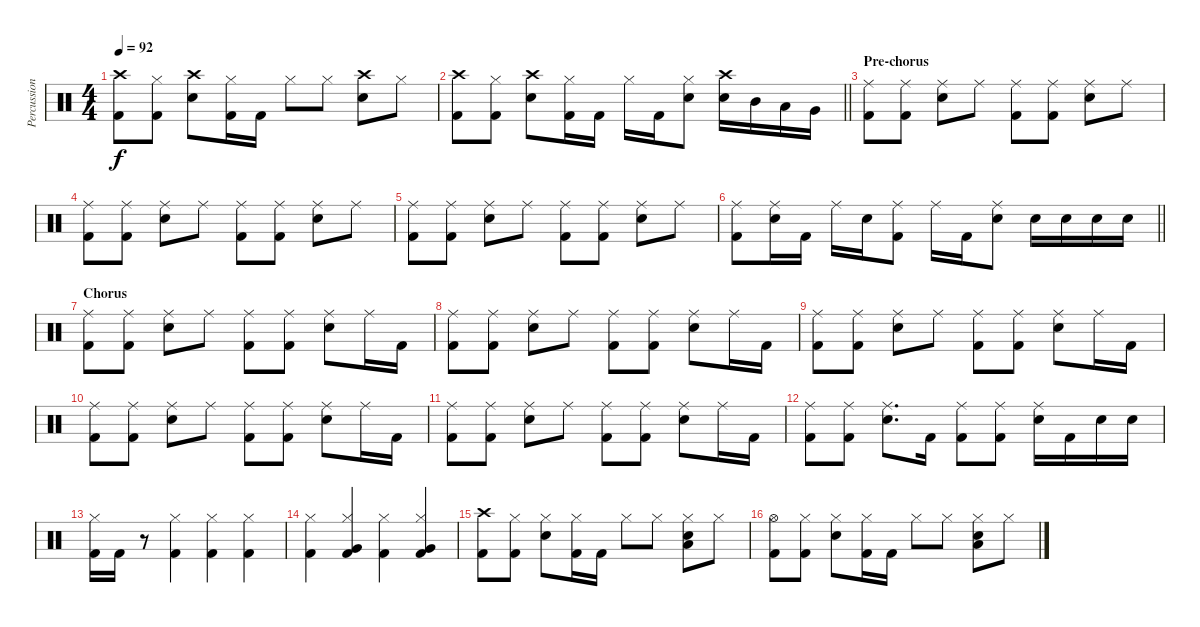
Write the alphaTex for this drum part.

\track ("Percussion" "Percussion") {instrument percussion}
\staff {score}
\articulation defaults
\ts (4 4)
\tempo 92
\clef neutral
\ks c
("Crash high (hit)" "Kick (hit) 2").8{dy f} ("Hi-Hat (closed)" "Kick (hit) 2").8 ("Crash high (hit)" "Electric Snare (hit)").8 ("Hi-Hat (closed)" "Kick (hit) 2").16 "Kick (hit) 2".16 "Hi-Hat (closed)".8 "Hi-Hat (closed)".8 ("Crash high (hit)" "Electric Snare (hit)").8 "Hi-Hat (closed)".8 |
\barLineRight lightlight
("Crash high (hit)" "Kick (hit) 2").8 ("Hi-Hat (closed)" "Kick (hit) 2").8 ("Crash high (hit)" "Electric Snare (hit)").8 ("Hi-Hat (closed)" "Kick (hit) 2").16 "Kick (hit) 2".16 "Hi-Hat (closed)".16 "Kick (hit) 2".16 ("Hi-Hat (closed)" "Electric Snare (hit)").8 ("Crash high (hit)" "Electric Snare (hit)").16 "Mid Tom (hit)".16 "Low Tom (hit)".16 "Very Low Tom (hit)".16 |
\section ("" "Pre-chorus")
("Ride (middle)" "Kick (hit) 2").8 ("Ride (middle)" "Kick (hit) 2").8 ("Ride (middle)" "Electric Snare (hit)").8 "Ride (middle)".8 ("Ride (middle)" "Kick (hit) 2").8 ("Ride (middle)" "Kick (hit) 2").8 ("Ride (middle)" "Electric Snare (hit)").8 "Ride (middle)".8 |
("Ride (middle)" "Kick (hit) 2").8 ("Ride (middle)" "Kick (hit) 2").8 ("Ride (middle)" "Electric Snare (hit)").8 "Ride (middle)".8 ("Ride (middle)" "Kick (hit) 2").8 ("Ride (middle)" "Kick (hit) 2").8 ("Ride (middle)" "Electric Snare (hit)").8 "Ride (middle)".8 |
("Ride (middle)" "Kick (hit) 2").8 ("Ride (middle)" "Kick (hit) 2").8 ("Ride (middle)" "Electric Snare (hit)").8 "Ride (middle)".8 ("Ride (middle)" "Kick (hit) 2").8 ("Ride (middle)" "Kick (hit) 2").8 ("Ride (middle)" "Electric Snare (hit)").8 "Ride (middle)".8 |
\barLineRight lightlight
("Ride (middle)" "Kick (hit) 2").8 ("Ride (middle)" "Electric Snare (hit)").16 "Kick (hit) 2".16 "Ride (middle)".16 "Electric Snare (hit)".16 ("Ride (middle)" "Kick (hit) 2").8 "Ride (middle)".16 "Kick (hit) 2".16 ("Ride (middle)" "Electric Snare (hit)").8 "Electric Snare (hit)".16 "Electric Snare (hit)".16 "Electric Snare (hit)".16 "Electric Snare (hit)".16 |
\section ("" "Chorus")
("Ride (middle)" "Kick (hit) 2").8 ("Ride (middle)" "Kick (hit) 2").8 ("Ride (middle)" "Electric Snare (hit)").8 "Ride (middle)".8 ("Ride (middle)" "Kick (hit) 2").8 ("Ride (middle)" "Kick (hit) 2").8 ("Ride (middle)" "Electric Snare (hit)").8 "Ride (middle)".16 "Kick (hit) 2".16 |
("Ride (middle)" "Kick (hit) 2").8 ("Ride (middle)" "Kick (hit) 2").8 ("Ride (middle)" "Electric Snare (hit)").8 "Ride (middle)".8 ("Ride (middle)" "Kick (hit) 2").8 ("Ride (middle)" "Kick (hit) 2").8 ("Ride (middle)" "Electric Snare (hit)").8 "Ride (middle)".16 "Kick (hit) 2".16 |
("Ride (middle)" "Kick (hit) 2").8 ("Ride (middle)" "Kick (hit) 2").8 ("Ride (middle)" "Electric Snare (hit)").8 "Ride (middle)".8 ("Ride (middle)" "Kick (hit) 2").8 ("Ride (middle)" "Kick (hit) 2").8 ("Ride (middle)" "Electric Snare (hit)").8 "Ride (middle)".16 "Kick (hit) 2".16 |
("Ride (middle)" "Kick (hit) 2").8 ("Ride (middle)" "Kick (hit) 2").8 ("Ride (middle)" "Electric Snare (hit)").8 "Ride (middle)".8 ("Ride (middle)" "Kick (hit) 2").8 ("Ride (middle)" "Kick (hit) 2").8 ("Ride (middle)" "Electric Snare (hit)").8 "Ride (middle)".16 "Kick (hit) 2".16 |
("Ride (middle)" "Kick (hit) 2").8 ("Ride (middle)" "Kick (hit) 2").8 ("Ride (middle)" "Electric Snare (hit)").8 "Ride (middle)".8 ("Ride (middle)" "Kick (hit) 2").8 ("Ride (middle)" "Kick (hit) 2").8 ("Ride (middle)" "Electric Snare (hit)").8 "Ride (middle)".16 "Kick (hit) 2".16 |
("Ride (middle)" "Kick (hit) 2").8 ("Ride (middle)" "Kick (hit) 2").8 ("Ride (middle)" "Electric Snare (hit)").8{d} "Kick (hit) 2".16 ("Ride (middle)" "Kick (hit) 2").8 ("Ride (middle)" "Kick (hit) 2").8 ("Ride (middle)" "Electric Snare (hit)").16 "Kick (hit) 2".16 "Electric Snare (hit)".16 "Electric Snare (hit)".16 |
("Hi-Hat (closed)" "Kick (hit) 2").16 "Kick (hit) 2".16 r.8 ("Hi-Hat (closed)" "Kick (hit) 2").4 ("Hi-Hat (closed)" "Kick (hit) 2").4 ("Hi-Hat (closed)" "Kick (hit) 2").4 |
("Hi-Hat (closed)" "Kick (hit) 2").4 ("Hi-Hat (closed)" "Very Low Tom (hit)" "Kick (hit) 2").4 ("Hi-Hat (closed)" "Kick (hit) 2").4 ("Hi-Hat (closed)" "Very Low Tom (hit)" "Kick (hit) 2").4 |
("Crash high (hit)" "Kick (hit) 2").8 ("Hi-Hat (closed)" "Kick (hit) 2").8 ("Hi-Hat (closed)" "Electric Snare (hit)").8 ("Hi-Hat (closed)" "Kick (hit) 2").16 "Kick (hit) 2".16 "Hi-Hat (closed)".8 "Hi-Hat (closed)".8 ("Hi-Hat (closed)" "Low Tom (hit)" "Electric Snare (hit)").8 "Hi-Hat (closed)".8 |
("Hi-Hat (open)" "Kick (hit) 2").8 ("Hi-Hat (closed)" "Kick (hit) 2").8 ("Hi-Hat (closed)" "Electric Snare (hit)").8 ("Hi-Hat (closed)" "Kick (hit) 2").16 "Kick (hit) 2".16 "Hi-Hat (closed)".8 "Hi-Hat (closed)".8 ("Hi-Hat (closed)" "Low Tom (hit)" "Electric Snare (hit)").8 "Hi-Hat (closed)".8
